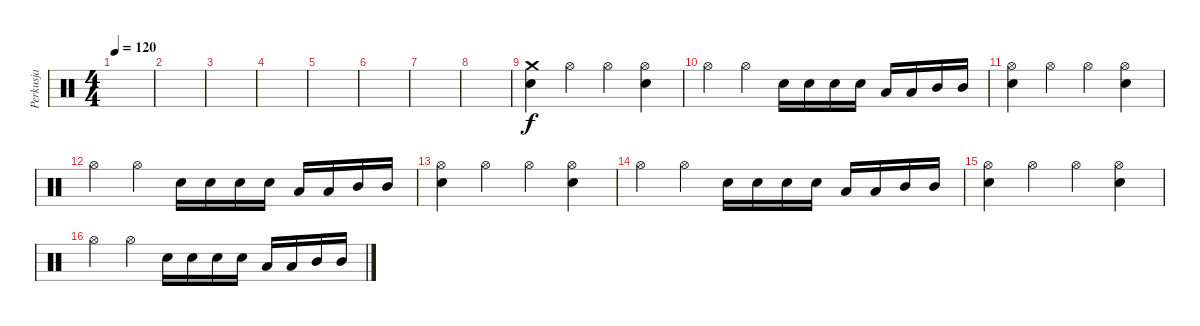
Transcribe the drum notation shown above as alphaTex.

\track ("Perkusja" "Perkusja") {instrument percussion}
\staff {score}
\articulation defaults
\ts (4 4)
\tempo 120
\clef neutral
\ks c
|
|
|
|
|
|
|
|
("Crash medium (hit)" "Snare (hit) 2").4 "Hi-Hat (open)".4 "Hi-Hat (open)".4 ("Hi-Hat (open)" "Snare (hit) 2").4 |
"Hi-Hat (open)".4 "Hi-Hat (open)".4 "Snare (hit) 2".16 "Snare (hit) 2".16 "Snare (hit) 2".16 "Snare (hit) 2".16 "Low Tom (hit)".16 "Low Tom (hit)".16 "Mid Tom (hit)".16 "Mid Tom (hit)".16 |
("Hi-Hat (open)" "Snare (hit) 2").4 "Hi-Hat (open)".4 "Hi-Hat (open)".4 ("Hi-Hat (open)" "Snare (hit) 2").4 |
"Hi-Hat (open)".4 "Hi-Hat (open)".4 "Snare (hit) 2".16 "Snare (hit) 2".16 "Snare (hit) 2".16 "Snare (hit) 2".16 "Low Tom (hit)".16 "Low Tom (hit)".16 "Mid Tom (hit)".16 "Mid Tom (hit)".16 |
("Hi-Hat (open)" "Snare (hit) 2").4 "Hi-Hat (open)".4 "Hi-Hat (open)".4 ("Hi-Hat (open)" "Snare (hit) 2").4 |
"Hi-Hat (open)".4 "Hi-Hat (open)".4 "Snare (hit) 2".16 "Snare (hit) 2".16 "Snare (hit) 2".16 "Snare (hit) 2".16 "Low Tom (hit)".16 "Low Tom (hit)".16 "Mid Tom (hit)".16 "Mid Tom (hit)".16 |
("Hi-Hat (open)" "Snare (hit) 2").4 "Hi-Hat (open)".4 "Hi-Hat (open)".4 ("Hi-Hat (open)" "Snare (hit) 2").4 |
"Hi-Hat (open)".4 "Hi-Hat (open)".4 "Snare (hit) 2".16 "Snare (hit) 2".16 "Snare (hit) 2".16 "Snare (hit) 2".16 "Low Tom (hit)".16 "Low Tom (hit)".16 "Mid Tom (hit)".16 "Mid Tom (hit)".16
